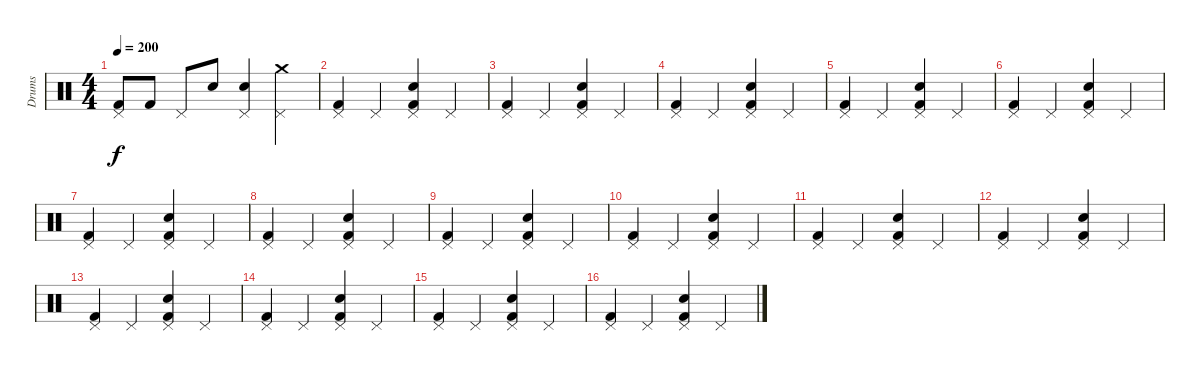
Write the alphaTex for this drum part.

\track ("Drums" "Drums") {instrument percussion}
\staff {score}
\articulation defaults
\ts (4 4)
\tempo 200
\clef neutral
\ks c
("Pedal Hi-Hat (hit)" "Kick (hit) 2").8{dy f} "Kick (hit) 2".8 "Pedal Hi-Hat (hit)".8 "Snare (hit) 2".8 ("Pedal Hi-Hat (hit)" "Snare (hit) 2").4 ("Pedal Hi-Hat (hit)" "Crash medium (hit)").4 |
("Pedal Hi-Hat (hit)" "Kick (hit) 2").4 "Pedal Hi-Hat (hit)".4 ("Pedal Hi-Hat (hit)" "Kick (hit) 2" "Snare (hit) 2").4 "Pedal Hi-Hat (hit)".4 |
("Pedal Hi-Hat (hit)" "Kick (hit) 2").4 "Pedal Hi-Hat (hit)".4 ("Pedal Hi-Hat (hit)" "Kick (hit) 2" "Snare (hit) 2").4 "Pedal Hi-Hat (hit)".4 |
("Pedal Hi-Hat (hit)" "Kick (hit) 2").4 "Pedal Hi-Hat (hit)".4 ("Pedal Hi-Hat (hit)" "Kick (hit) 2" "Snare (hit) 2").4 "Pedal Hi-Hat (hit)".4 |
("Pedal Hi-Hat (hit)" "Kick (hit) 2").4 "Pedal Hi-Hat (hit)".4 ("Pedal Hi-Hat (hit)" "Kick (hit) 2" "Snare (hit) 2").4 "Pedal Hi-Hat (hit)".4 |
("Pedal Hi-Hat (hit)" "Kick (hit) 2").4 "Pedal Hi-Hat (hit)".4 ("Pedal Hi-Hat (hit)" "Kick (hit) 2" "Snare (hit) 2").4 "Pedal Hi-Hat (hit)".4 |
("Pedal Hi-Hat (hit)" "Kick (hit) 2").4 "Pedal Hi-Hat (hit)".4 ("Pedal Hi-Hat (hit)" "Kick (hit) 2" "Snare (hit) 2").4 "Pedal Hi-Hat (hit)".4 |
("Pedal Hi-Hat (hit)" "Kick (hit) 2").4 "Pedal Hi-Hat (hit)".4 ("Pedal Hi-Hat (hit)" "Kick (hit) 2" "Snare (hit) 2").4 "Pedal Hi-Hat (hit)".4 |
("Pedal Hi-Hat (hit)" "Kick (hit) 2").4 "Pedal Hi-Hat (hit)".4 ("Pedal Hi-Hat (hit)" "Kick (hit) 2" "Snare (hit) 2").4 "Pedal Hi-Hat (hit)".4 |
("Pedal Hi-Hat (hit)" "Kick (hit) 2").4 "Pedal Hi-Hat (hit)".4 ("Pedal Hi-Hat (hit)" "Kick (hit) 2" "Snare (hit) 2").4 "Pedal Hi-Hat (hit)".4 |
("Pedal Hi-Hat (hit)" "Kick (hit) 2").4 "Pedal Hi-Hat (hit)".4 ("Pedal Hi-Hat (hit)" "Kick (hit) 2" "Snare (hit) 2").4 "Pedal Hi-Hat (hit)".4 |
("Pedal Hi-Hat (hit)" "Kick (hit) 2").4 "Pedal Hi-Hat (hit)".4 ("Pedal Hi-Hat (hit)" "Kick (hit) 2" "Snare (hit) 2").4 "Pedal Hi-Hat (hit)".4 |
("Pedal Hi-Hat (hit)" "Kick (hit) 2").4 "Pedal Hi-Hat (hit)".4 ("Pedal Hi-Hat (hit)" "Kick (hit) 2" "Snare (hit) 2").4 "Pedal Hi-Hat (hit)".4 |
("Pedal Hi-Hat (hit)" "Kick (hit) 2").4 "Pedal Hi-Hat (hit)".4 ("Pedal Hi-Hat (hit)" "Kick (hit) 2" "Snare (hit) 2").4 "Pedal Hi-Hat (hit)".4 |
("Pedal Hi-Hat (hit)" "Kick (hit) 2").4 "Pedal Hi-Hat (hit)".4 ("Pedal Hi-Hat (hit)" "Kick (hit) 2" "Snare (hit) 2").4 "Pedal Hi-Hat (hit)".4 |
("Pedal Hi-Hat (hit)" "Kick (hit) 2").4 "Pedal Hi-Hat (hit)".4 ("Pedal Hi-Hat (hit)" "Kick (hit) 2" "Snare (hit) 2").4 "Pedal Hi-Hat (hit)".4
